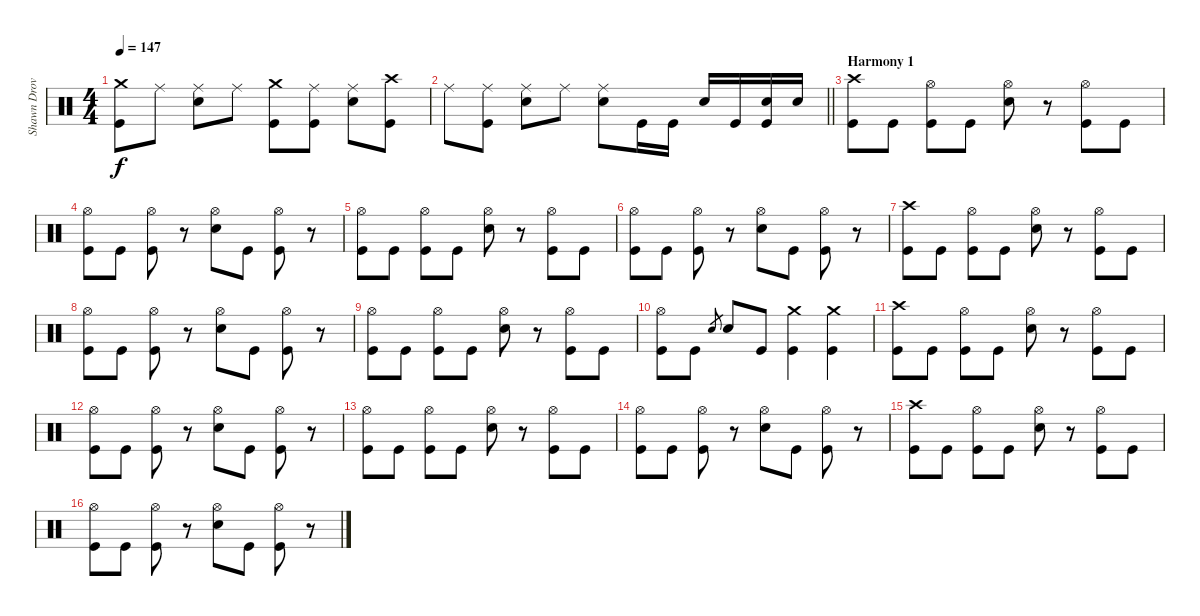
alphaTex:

\track ("Shawn Drover" "Shawn Drov") {instrument percussion}
\staff {score}
\articulation defaults
\ts (4 4)
\tempo 147
\clef neutral
\ks c
("Crash medium (hit)" "Kick (hit)").8{dy f} "Ride (middle)".8 ("Ride (middle)" "Snare (hit) 2").8 "Ride (middle)".8 ("Crash medium (hit)" "Kick (hit)").8 ("Ride (middle)" "Kick (hit)").8 ("Ride (middle)" "Snare (hit) 2").8 ("Crash high (hit)" "Kick (hit)").8 |
\barLineRight lightlight "Ride (middle)".8
("Ride (middle)" "Kick (hit)").8 ("Ride (middle)" "Snare (hit) 2").8 "Ride (middle)".8 ("Ride (middle)" "Snare (hit) 2").8 "Kick (hit)".16 "Kick (hit)".16 "Snare (hit) 2".16 "Kick (hit)".16 ("Snare (hit) 2" "Kick (hit)").16 "Snare (hit) 2".16 |
\section ("" "Harmony 1")
("Crash high (hit)" "Kick (hit)").8 "Kick (hit)".8 ("Hi-Hat (open)" "Kick (hit)").8 "Kick (hit)".8 ("Hi-Hat (open)" "Snare (hit) 2").8 r.8 ("Hi-Hat (open)" "Kick (hit)").8 "Kick (hit)".8 |
("Hi-Hat (open)" "Kick (hit)").8 "Kick (hit)".8 ("Hi-Hat (open)" "Kick (hit)").8 r.8 ("Hi-Hat (open)" "Snare (hit) 2").8 "Kick (hit)".8 ("Hi-Hat (open)" "Kick (hit)").8 r.8 |
("Hi-Hat (open)" "Kick (hit)").8 "Kick (hit)".8 ("Hi-Hat (open)" "Kick (hit)").8 "Kick (hit)".8 ("Hi-Hat (open)" "Snare (hit) 2").8 r.8 ("Hi-Hat (open)" "Kick (hit)").8 "Kick (hit)".8 |
("Hi-Hat (open)" "Kick (hit)").8 "Kick (hit)".8 ("Hi-Hat (open)" "Kick (hit)").8 r.8 ("Hi-Hat (open)" "Snare (hit) 2").8 "Kick (hit)".8 ("Hi-Hat (open)" "Kick (hit)").8 r.8 |
("Crash high (hit)" "Kick (hit)").8 "Kick (hit)".8 ("Hi-Hat (open)" "Kick (hit)").8 "Kick (hit)".8 ("Hi-Hat (open)" "Snare (hit) 2").8 r.8 ("Hi-Hat (open)" "Kick (hit)").8 "Kick (hit)".8 |
("Hi-Hat (open)" "Kick (hit)").8 "Kick (hit)".8 ("Hi-Hat (open)" "Kick (hit)").8 r.8 ("Hi-Hat (open)" "Snare (hit) 2").8 "Kick (hit)".8 ("Hi-Hat (open)" "Kick (hit)").8 r.8 |
("Hi-Hat (open)" "Kick (hit)").8 "Kick (hit)".8 ("Hi-Hat (open)" "Kick (hit)").8 "Kick (hit)".8 ("Hi-Hat (open)" "Snare (hit) 2").8 r.8 ("Hi-Hat (open)" "Kick (hit)").8 "Kick (hit)".8 |
("Hi-Hat (open)" "Kick (hit)").8 "Kick (hit)".8 "Snare (hit) 2".8{gr} "Snare (hit) 2".8 "Kick (hit)".8 ("Crash medium (hit)" "Kick (hit)").4 ("Crash medium (hit)" "Kick (hit)").4 |
("Crash high (hit)" "Kick (hit)").8 "Kick (hit)".8 ("Hi-Hat (open)" "Kick (hit)").8 "Kick (hit)".8 ("Hi-Hat (open)" "Snare (hit) 2").8 r.8 ("Hi-Hat (open)" "Kick (hit)").8 "Kick (hit)".8 |
("Hi-Hat (open)" "Kick (hit)").8 "Kick (hit)".8 ("Hi-Hat (open)" "Kick (hit)").8 r.8 ("Hi-Hat (open)" "Snare (hit) 2").8 "Kick (hit)".8 ("Hi-Hat (open)" "Kick (hit)").8 r.8 |
("Hi-Hat (open)" "Kick (hit)").8 "Kick (hit)".8 ("Hi-Hat (open)" "Kick (hit)").8 "Kick (hit)".8 ("Hi-Hat (open)" "Snare (hit) 2").8 r.8 ("Hi-Hat (open)" "Kick (hit)").8 "Kick (hit)".8 |
("Hi-Hat (open)" "Kick (hit)").8 "Kick (hit)".8 ("Hi-Hat (open)" "Kick (hit)").8 r.8 ("Hi-Hat (open)" "Snare (hit) 2").8 "Kick (hit)".8 ("Hi-Hat (open)" "Kick (hit)").8 r.8 |
("Crash high (hit)" "Kick (hit)").8 "Kick (hit)".8 ("Hi-Hat (open)" "Kick (hit)").8 "Kick (hit)".8 ("Hi-Hat (open)" "Snare (hit) 2").8 r.8 ("Hi-Hat (open)" "Kick (hit)").8 "Kick (hit)".8 |
("Hi-Hat (open)" "Kick (hit)").8 "Kick (hit)".8 ("Hi-Hat (open)" "Kick (hit)").8 r.8 ("Hi-Hat (open)" "Snare (hit) 2").8 "Kick (hit)".8 ("Hi-Hat (open)" "Kick (hit)").8 r.8
